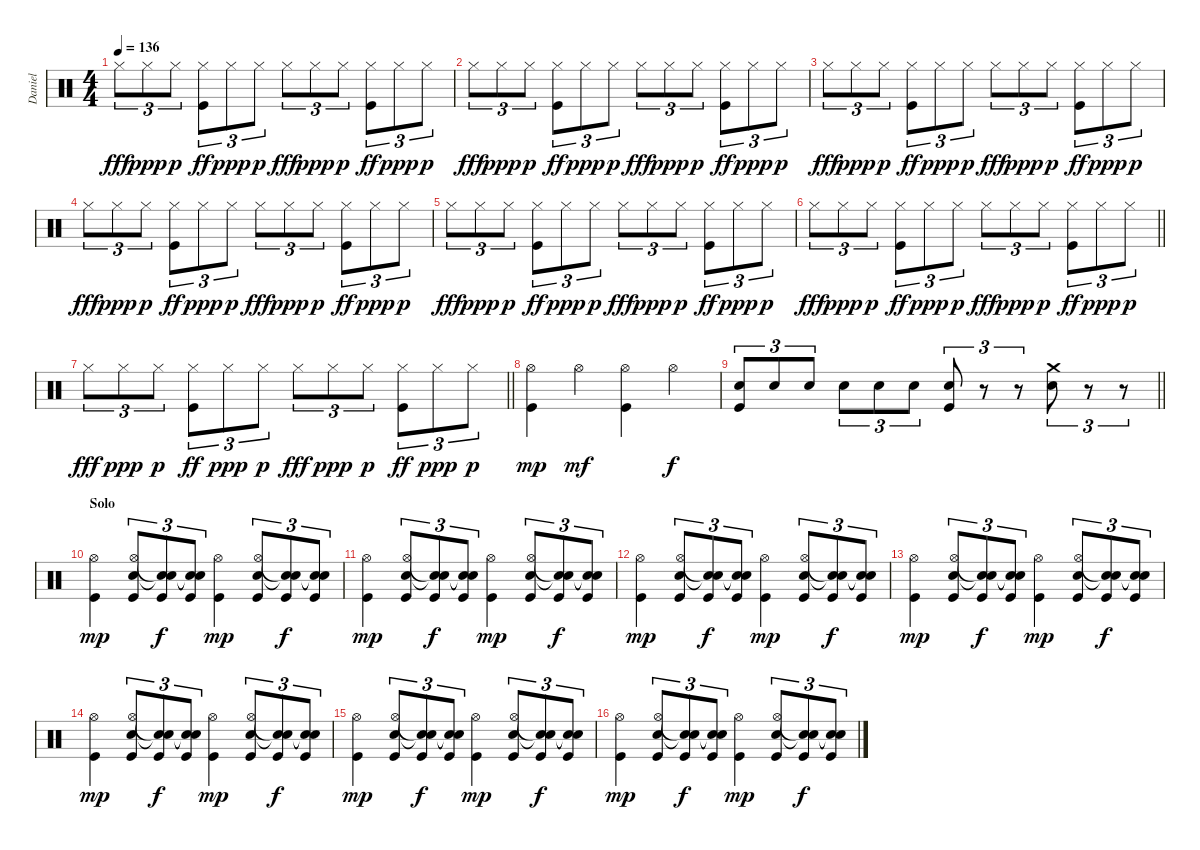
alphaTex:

\track ("Daniel" "Daniel") {instrument percussion}
\staff {score}
\articulation defaults
\ts (4 4)
\tempo 136
\clef neutral
\ks c "Hi-Hat (closed)".8{tu (3 2) dy fff} "Hi-Hat (closed)".8{tu (3 2) dy ppp} "Hi-Hat (closed)".8{tu (3 2) dy p}
("Hi-Hat (closed)" "Kick (hit)").8{tu (3 2) dy ff} "Hi-Hat (closed)".8{tu (3 2) dy ppp} "Hi-Hat (closed)".8{tu (3 2) dy p} "Hi-Hat (closed)".8{tu (3 2) dy fff} "Hi-Hat (closed)".8{tu (3 2) dy ppp} "Hi-Hat (closed)".8{tu (3 2) dy p} ("Hi-Hat (closed)" "Kick (hit)").8{tu (3 2) dy ff} "Hi-Hat (closed)".8{tu (3 2) dy ppp} "Hi-Hat (closed)".8{tu (3 2) dy p} |
"Hi-Hat (closed)".8{tu (3 2) dy fff} "Hi-Hat (closed)".8{tu (3 2) dy ppp} "Hi-Hat (closed)".8{tu (3 2) dy p} ("Hi-Hat (closed)" "Kick (hit)").8{tu (3 2) dy ff} "Hi-Hat (closed)".8{tu (3 2) dy ppp} "Hi-Hat (closed)".8{tu (3 2) dy p} "Hi-Hat (closed)".8{tu (3 2) dy fff} "Hi-Hat (closed)".8{tu (3 2) dy ppp} "Hi-Hat (closed)".8{tu (3 2) dy p} ("Hi-Hat (closed)" "Kick (hit)").8{tu (3 2) dy ff} "Hi-Hat (closed)".8{tu (3 2) dy ppp} "Hi-Hat (closed)".8{tu (3 2) dy p} |
"Hi-Hat (closed)".8{tu (3 2) dy fff} "Hi-Hat (closed)".8{tu (3 2) dy ppp} "Hi-Hat (closed)".8{tu (3 2) dy p} ("Hi-Hat (closed)" "Kick (hit)").8{tu (3 2) dy ff} "Hi-Hat (closed)".8{tu (3 2) dy ppp} "Hi-Hat (closed)".8{tu (3 2) dy p} "Hi-Hat (closed)".8{tu (3 2) dy fff} "Hi-Hat (closed)".8{tu (3 2) dy ppp} "Hi-Hat (closed)".8{tu (3 2) dy p} ("Hi-Hat (closed)" "Kick (hit)").8{tu (3 2) dy ff} "Hi-Hat (closed)".8{tu (3 2) dy ppp} "Hi-Hat (closed)".8{tu (3 2) dy p} |
"Hi-Hat (closed)".8{tu (3 2) dy fff} "Hi-Hat (closed)".8{tu (3 2) dy ppp} "Hi-Hat (closed)".8{tu (3 2) dy p} ("Hi-Hat (closed)" "Kick (hit)").8{tu (3 2) dy ff} "Hi-Hat (closed)".8{tu (3 2) dy ppp} "Hi-Hat (closed)".8{tu (3 2) dy p} "Hi-Hat (closed)".8{tu (3 2) dy fff} "Hi-Hat (closed)".8{tu (3 2) dy ppp} "Hi-Hat (closed)".8{tu (3 2) dy p} ("Hi-Hat (closed)" "Kick (hit)").8{tu (3 2) dy ff} "Hi-Hat (closed)".8{tu (3 2) dy ppp} "Hi-Hat (closed)".8{tu (3 2) dy p} |
"Hi-Hat (closed)".8{tu (3 2) dy fff} "Hi-Hat (closed)".8{tu (3 2) dy ppp} "Hi-Hat (closed)".8{tu (3 2) dy p} ("Hi-Hat (closed)" "Kick (hit)").8{tu (3 2) dy ff} "Hi-Hat (closed)".8{tu (3 2) dy ppp} "Hi-Hat (closed)".8{tu (3 2) dy p} "Hi-Hat (closed)".8{tu (3 2) dy fff} "Hi-Hat (closed)".8{tu (3 2) dy ppp} "Hi-Hat (closed)".8{tu (3 2) dy p} ("Hi-Hat (closed)" "Kick (hit)").8{tu (3 2) dy ff} "Hi-Hat (closed)".8{tu (3 2) dy ppp} "Hi-Hat (closed)".8{tu (3 2) dy p} |
\barLineRight lightlight "Hi-Hat (closed)".8{tu (3 2) dy fff} "Hi-Hat (closed)".8{tu (3 2) dy ppp} "Hi-Hat (closed)".8{tu (3 2) dy p}
("Hi-Hat (closed)" "Kick (hit)").8{tu (3 2) dy ff} "Hi-Hat (closed)".8{tu (3 2) dy ppp} "Hi-Hat (closed)".8{tu (3 2) dy p} "Hi-Hat (closed)".8{tu (3 2) dy fff} "Hi-Hat (closed)".8{tu (3 2) dy ppp} "Hi-Hat (closed)".8{tu (3 2) dy p} ("Hi-Hat (closed)" "Kick (hit)").8{tu (3 2) dy ff} "Hi-Hat (closed)".8{tu (3 2) dy ppp} "Hi-Hat (closed)".8{tu (3 2) dy p} |
\barLineRight lightlight "Hi-Hat (closed)".8{tu (3 2) dy fff} "Hi-Hat (closed)".8{tu (3 2) dy ppp} "Hi-Hat (closed)".8{tu (3 2) dy p}
("Hi-Hat (closed)" "Kick (hit)").8{tu (3 2) dy ff} "Hi-Hat (closed)".8{tu (3 2) dy ppp} "Hi-Hat (closed)".8{tu (3 2) dy p} "Hi-Hat (closed)".8{tu (3 2) dy fff} "Hi-Hat (closed)".8{tu (3 2) dy ppp} "Hi-Hat (closed)".8{tu (3 2) dy p} ("Hi-Hat (closed)" "Kick (hit)").8{tu (3 2) dy ff} "Hi-Hat (closed)".8{tu (3 2) dy ppp} "Hi-Hat (closed)".8{tu (3 2) dy p} |
("Hi-Hat (open)" "Kick (hit)").4{dy mp} "Hi-Hat (open)".4{dy mf} ("Hi-Hat (open)" "Kick (hit)").4 "Hi-Hat (open)".4{dy f} |
\barLineRight lightlight
("Snare (hit) 2" "Kick (hit)").8{tu (3 2)} "Snare (hit) 2".8{tu (3 2)} "Snare (hit) 2".8{tu (3 2)} "Snare (hit) 2".8{tu (3 2)} "Snare (hit) 2".8{tu (3 2)} "Snare (hit) 2".8{tu (3 2)} ("Snare (hit) 2" "Kick (hit)").8{tu (3 2)} r.8{tu (3 2)} r.8{tu (3 2)} ("Crash medium (hit)" "Snare (hit) 2").8{tu (3 2)} r.8{tu (3 2)} r.8{tu (3 2)} |
\section ("" "Solo")
("Hi-Hat (open)" "Kick (hit)").4{dy mp} ("Hi-Hat (open)" "Snare (hit) 2" "Kick (hit)").8{tu (3 2)} ("Snare (hit)"{t} "Snare (hit)"{t} "Kick (hit)").8{tu (3 2) dy f} ("Snare (hit)"{t} "Snare (hit)"{t} "Kick (hit)").8{tu (3 2)} ("Hi-Hat (open)" "Kick (hit)").4{dy mp} ("Hi-Hat (open)" "Snare (hit) 2" "Kick (hit)").8{tu (3 2)} ("Snare (hit)"{t} "Snare (hit)"{t} "Kick (hit)").8{tu (3 2) dy f} ("Snare (hit)"{t} "Snare (hit)"{t} "Kick (hit)").8{tu (3 2)} |
("Hi-Hat (open)" "Kick (hit)").4{dy mp} ("Hi-Hat (open)" "Snare (hit) 2" "Kick (hit)").8{tu (3 2)} ("Snare (hit)"{t} "Snare (hit)"{t} "Kick (hit)").8{tu (3 2) dy f} ("Snare (hit)"{t} "Snare (hit)"{t} "Kick (hit)").8{tu (3 2)} ("Hi-Hat (open)" "Kick (hit)").4{dy mp} ("Hi-Hat (open)" "Snare (hit) 2" "Kick (hit)").8{tu (3 2)} ("Snare (hit)"{t} "Snare (hit)"{t} "Kick (hit)").8{tu (3 2) dy f} ("Snare (hit)"{t} "Snare (hit)"{t} "Kick (hit)").8{tu (3 2)} |
("Hi-Hat (open)" "Kick (hit)").4{dy mp} ("Hi-Hat (open)" "Snare (hit) 2" "Kick (hit)").8{tu (3 2)} ("Snare (hit)"{t} "Snare (hit)"{t} "Kick (hit)").8{tu (3 2) dy f} ("Snare (hit)"{t} "Snare (hit)"{t} "Kick (hit)").8{tu (3 2)} ("Hi-Hat (open)" "Kick (hit)").4{dy mp} ("Hi-Hat (open)" "Snare (hit) 2" "Kick (hit)").8{tu (3 2)} ("Snare (hit)"{t} "Snare (hit)"{t} "Kick (hit)").8{tu (3 2) dy f} ("Snare (hit)"{t} "Snare (hit)"{t} "Kick (hit)").8{tu (3 2)} |
("Hi-Hat (open)" "Kick (hit)").4{dy mp} ("Hi-Hat (open)" "Snare (hit) 2" "Kick (hit)").8{tu (3 2)} ("Snare (hit)"{t} "Snare (hit)"{t} "Kick (hit)").8{tu (3 2) dy f} ("Snare (hit)"{t} "Snare (hit)"{t} "Kick (hit)").8{tu (3 2)} ("Hi-Hat (open)" "Kick (hit)").4{dy mp} ("Hi-Hat (open)" "Snare (hit) 2" "Kick (hit)").8{tu (3 2)} ("Snare (hit)"{t} "Snare (hit)"{t} "Kick (hit)").8{tu (3 2) dy f} ("Snare (hit)"{t} "Snare (hit)"{t} "Kick (hit)").8{tu (3 2)} |
("Hi-Hat (open)" "Kick (hit)").4{dy mp} ("Hi-Hat (open)" "Snare (hit) 2" "Kick (hit)").8{tu (3 2)} ("Snare (hit)"{t} "Snare (hit)"{t} "Kick (hit)").8{tu (3 2) dy f} ("Snare (hit)"{t} "Snare (hit)"{t} "Kick (hit)").8{tu (3 2)} ("Hi-Hat (open)" "Kick (hit)").4{dy mp} ("Hi-Hat (open)" "Snare (hit) 2" "Kick (hit)").8{tu (3 2)} ("Snare (hit)"{t} "Snare (hit)"{t} "Kick (hit)").8{tu (3 2) dy f} ("Snare (hit)"{t} "Snare (hit)"{t} "Kick (hit)").8{tu (3 2)} |
("Hi-Hat (open)" "Kick (hit)").4{dy mp} ("Hi-Hat (open)" "Snare (hit) 2" "Kick (hit)").8{tu (3 2)} ("Snare (hit)"{t} "Snare (hit)"{t} "Kick (hit)").8{tu (3 2) dy f} ("Snare (hit)"{t} "Snare (hit)"{t} "Kick (hit)").8{tu (3 2)} ("Hi-Hat (open)" "Kick (hit)").4{dy mp} ("Hi-Hat (open)" "Snare (hit) 2" "Kick (hit)").8{tu (3 2)} ("Snare (hit)"{t} "Snare (hit)"{t} "Kick (hit)").8{tu (3 2) dy f} ("Snare (hit)"{t} "Snare (hit)"{t} "Kick (hit)").8{tu (3 2)} |
("Hi-Hat (open)" "Kick (hit)").4{dy mp} ("Hi-Hat (open)" "Snare (hit) 2" "Kick (hit)").8{tu (3 2)} ("Snare (hit)"{t} "Snare (hit)"{t} "Kick (hit)").8{tu (3 2) dy f} ("Snare (hit)"{t} "Snare (hit)"{t} "Kick (hit)").8{tu (3 2)} ("Hi-Hat (open)" "Kick (hit)").4{dy mp} ("Hi-Hat (open)" "Snare (hit) 2" "Kick (hit)").8{tu (3 2)} ("Snare (hit)"{t} "Snare (hit)"{t} "Kick (hit)").8{tu (3 2) dy f} ("Snare (hit)"{t} "Snare (hit)"{t} "Kick (hit)").8{tu (3 2)}
